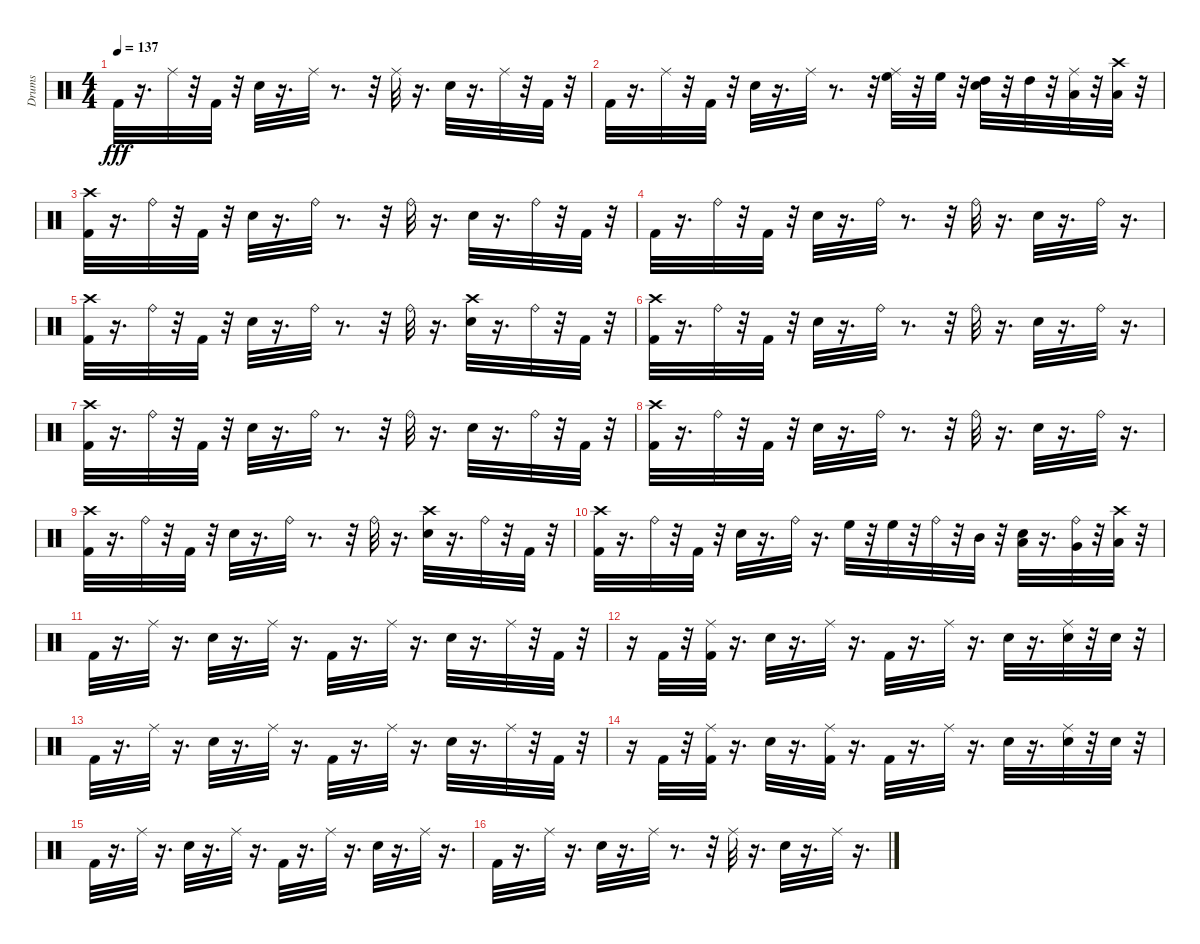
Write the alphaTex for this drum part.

\track ("Drums" "Drums") {instrument percussion}
\staff {score}
\articulation defaults
\ts (4 4)
\tempo 137
\clef neutral
\ks c "Kick (hit) 2".32{dy fff}
r.16{d} "Ride (middle)".32 r.32 "Kick (hit) 2".32 r.32 "Snare (hit) 2".32 r.16{d} "Ride (middle)".32 r.8{d} r.32 "Ride (middle)".32 r.16{d} "Snare (hit) 2".32 r.16{d} "Ride (middle)".32 r.32 "Kick (hit) 2".32 r.32 |
"Kick (hit) 2".32 r.16{d} "Ride (middle)".32 r.32 "Kick (hit) 2".32 r.32 "Snare (hit) 2".32 r.16{d} "Ride (middle)".32 r.8{d} r.32 ("Ride (middle)" "High Floor Tom (hit)").32 r.32 "High Floor Tom (hit)".32 r.32 ("High Tom (hit)" "Snare (hit) 2").32 r.32 "High Tom (hit)".32 r.32 ("Low Tom (hit)" "Ride (middle)").32 r.32 ("Crash high (hit)" "Low Tom (hit)").32 r.32 |
("Kick (hit) 2" "Crash high (hit)").32 r.16{d} "Ride (bell)".32 r.32 "Kick (hit) 2".32 r.32 "Snare (hit) 2".32 r.16{d} "Ride (bell)".32 r.8{d} r.32 "Ride (bell)".32 r.16{d} "Snare (hit) 2".32 r.16{d} "Ride (bell)".32 r.32 "Kick (hit) 2".32 r.32 |
"Kick (hit) 2".32 r.16{d} "Ride (bell)".32 r.32 "Kick (hit) 2".32 r.32 "Snare (hit) 2".32 r.16{d} "Ride (bell)".32 r.8{d} r.32 "Ride (bell)".32 r.16{d} "Snare (hit) 2".32 r.16{d} "Ride (bell)".32 r.16{d} |
("Crash high (hit)" "Kick (hit) 2").32 r.16{d} "Ride (bell)".32 r.32 "Kick (hit) 2".32 r.32 "Snare (hit) 2".32 r.16{d} "Ride (bell)".32 r.8{d} r.32 "Ride (bell)".32 r.16{d} ("Snare (hit) 2" "Crash high (hit)").32 r.16{d} "Ride (bell)".32 r.32 "Kick (hit) 2".32 r.32 |
("Crash high (hit)" "Kick (hit) 2").32 r.16{d} "Ride (bell)".32 r.32 "Kick (hit) 2".32 r.32 "Snare (hit) 2".32 r.16{d} "Ride (bell)".32 r.8{d} r.32 "Ride (bell)".32 r.16{d} "Snare (hit) 2".32 r.16{d} "Ride (bell)".32 r.16{d} |
("Crash high (hit)" "Kick (hit) 2").32 r.16{d} "Ride (bell)".32 r.32 "Kick (hit) 2".32 r.32 "Snare (hit) 2".32 r.16{d} "Ride (bell)".32 r.8{d} r.32 "Ride (bell)".32 r.16{d} "Snare (hit) 2".32 r.16{d} "Ride (bell)".32 r.32 "Kick (hit) 2".32 r.32 |
("Crash high (hit)" "Kick (hit) 2").32 r.16{d} "Ride (bell)".32 r.32 "Kick (hit) 2".32 r.32 "Snare (hit) 2".32 r.16{d} "Ride (bell)".32 r.8{d} r.32 "Ride (bell)".32 r.16{d} "Snare (hit) 2".32 r.16{d} "Ride (bell)".32 r.16{d} |
("Crash high (hit)" "Kick (hit) 2").32 r.16{d} "Ride (bell)".32 r.32 "Kick (hit) 2".32 r.32 "Snare (hit) 2".32 r.16{d} "Ride (bell)".32 r.8{d} r.32 "Ride (bell)".32 r.16{d} ("Crash high (hit)" "Snare (hit) 2").32 r.16{d} "Ride (bell)".32 r.32 "Kick (hit) 2".32 r.32 |
("Crash high (hit)" "Kick (hit) 2").32 r.16{d} "Ride (bell)".32 r.32 "Kick (hit) 2".32 r.32 "Snare (hit) 2".32 r.16{d} "Ride (bell)".32 r.16{d} "High Floor Tom (hit)".32 r.32 "High Floor Tom (hit)".32 r.32 "Ride (bell)".32 r.32 "Mid Tom (hit)".32 r.32 ("Low Tom (hit)" "Snare (hit) 2").32 r.16{d} ("Very Low Tom (hit)" "Ride (bell)").32 r.32 ("Crash high (hit)" "Low Floor Tom (hit)").32 r.32 |
"Kick (hit) 2".32 r.16{d} "Ride (middle)".32 r.16{d} "Snare (hit) 2".32 r.16{d} "Ride (middle)".32 r.16{d} "Kick (hit) 2".32 r.16{d} "Ride (middle)".32 r.16{d} "Snare (hit) 2".32 r.16{d} "Ride (middle)".32 r.32 "Kick (hit) 2".32 r.32 |
r.16 "Kick (hit) 2".32 r.32 ("Kick (hit) 2" "Ride (middle)").32 r.16{d} "Snare (hit) 2".32 r.16{d} "Ride (middle)".32 r.16{d} "Kick (hit) 2".32 r.16{d} "Ride (middle)".32 r.16{d} "Snare (hit) 2".32 r.16{d} ("Snare (hit) 2" "Ride (middle)").32 r.32 "Snare (hit) 2".32 r.32 |
"Kick (hit) 2".32 r.16{d} "Ride (middle)".32 r.16{d} "Snare (hit) 2".32 r.16{d} "Ride (middle)".32 r.16{d} "Kick (hit) 2".32 r.16{d} "Ride (middle)".32 r.16{d} "Snare (hit) 2".32 r.16{d} "Ride (middle)".32 r.32 "Kick (hit) 2".32 r.32 |
r.16 "Kick (hit) 2".32 r.32 ("Kick (hit) 2" "Ride (middle)").32 r.16{d} "Snare (hit) 2".32 r.16{d} ("Kick (hit) 2" "Ride (middle)").32 r.16{d} "Kick (hit) 2".32 r.16{d} "Ride (middle)".32 r.16{d} "Snare (hit) 2".32 r.16{d} ("Snare (hit) 2" "Ride (middle)").32 r.32 "Snare (hit) 2".32 r.32 |
"Kick (hit) 2".32 r.16{d} "Ride (middle)".32 r.16{d} "Snare (hit) 2".32 r.16{d} "Ride (middle)".32 r.16{d} "Kick (hit) 2".32 r.16{d} "Ride (middle)".32 r.16{d} "Snare (hit) 2".32 r.16{d} "Ride (middle)".32 r.16{d} |
"Kick (hit) 2".32 r.16{d} "Ride (middle)".32 r.16{d} "Snare (hit) 2".32 r.16{d} "Ride (middle)".32 r.8{d} r.32 "Ride (middle)".32 r.16{d} "Snare (hit) 2".32 r.16{d} "Ride (middle)".32 r.16{d}
